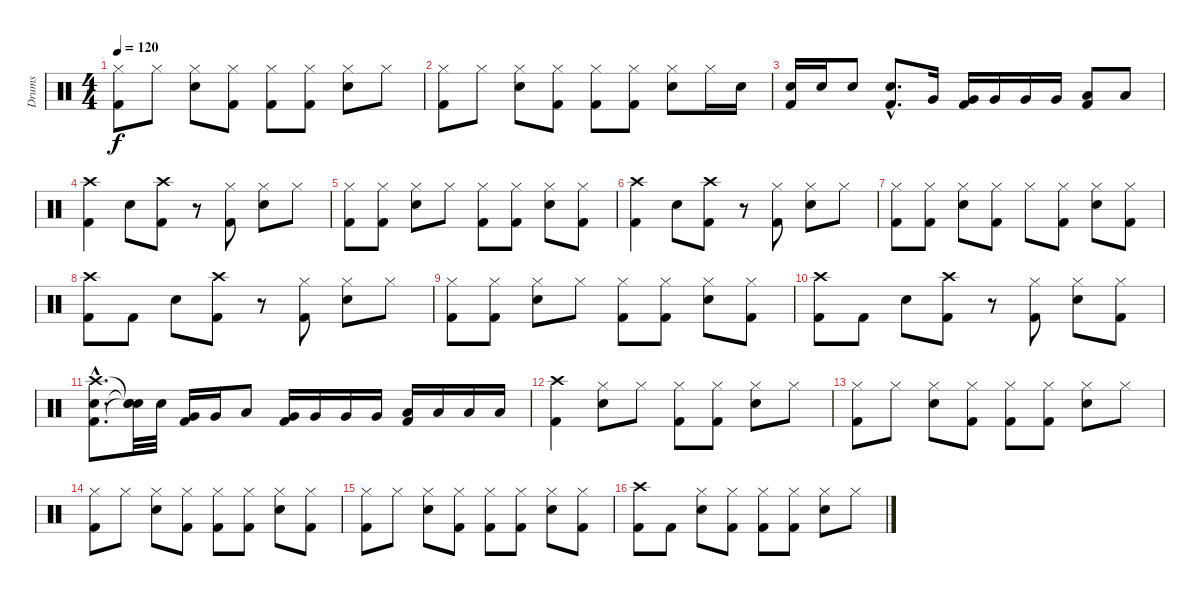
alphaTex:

\track ("Drums" "Drums") {instrument percussion}
\staff {score}
\articulation defaults
\ts (4 4)
\tempo 120
\clef neutral
\ks c
("Hi-Hat (closed)" "Kick (hit) 2").8{dy f} "Hi-Hat (closed)".8 ("Hi-Hat (closed)" "Electric Snare (hit)").8 ("Hi-Hat (closed)" "Kick (hit) 2").8 ("Hi-Hat (closed)" "Kick (hit) 2").8 ("Hi-Hat (closed)" "Kick (hit) 2").8 ("Hi-Hat (closed)" "Electric Snare (hit)").8 "Hi-Hat (closed)".8 |
("Hi-Hat (closed)" "Kick (hit) 2").8 "Hi-Hat (closed)".8 ("Hi-Hat (closed)" "Electric Snare (hit)").8 ("Hi-Hat (closed)" "Kick (hit) 2").8 ("Hi-Hat (closed)" "Kick (hit) 2").8 ("Hi-Hat (closed)" "Kick (hit) 2").8 ("Hi-Hat (closed)" "Electric Snare (hit)").8 "Hi-Hat (closed)".16 "Electric Snare (hit)".16 |
("Electric Snare (hit)" "Kick (hit) 2").16 "Electric Snare (hit)".16 "Electric Snare (hit)".8 ("Electric Snare (hit)"{hac} "Kick (hit) 2"{hac}).8{d} "Very Low Tom (hit)".16 ("Kick (hit) 2" "Very Low Tom (hit)").16 "Very Low Tom (hit)".16 "Very Low Tom (hit)".16 "Very Low Tom (hit)".16 ("Kick (hit) 2" "Low Floor Tom (hit)").8 "Low Floor Tom (hit)".8 |
("Crash high (hit)" "Kick (hit) 2").4 "Electric Snare (hit)".8 ("Crash high (hit)" "Kick (hit) 2").8 r.8 ("Hi-Hat (closed)" "Kick (hit) 2").8 ("Hi-Hat (closed)" "Electric Snare (hit)").8 "Hi-Hat (closed)".8 |
("Hi-Hat (closed)" "Kick (hit) 2").8 ("Hi-Hat (closed)" "Kick (hit) 2").8 ("Hi-Hat (closed)" "Electric Snare (hit)").8 "Hi-Hat (closed)".8 ("Hi-Hat (closed)" "Kick (hit) 2").8 ("Hi-Hat (closed)" "Kick (hit) 2").8 ("Hi-Hat (closed)" "Electric Snare (hit)").8 ("Hi-Hat (closed)" "Kick (hit) 2").8 |
("Crash high (hit)" "Kick (hit) 2").4 "Electric Snare (hit)".8 ("Crash high (hit)" "Kick (hit) 2").8 r.8 ("Hi-Hat (closed)" "Kick (hit) 2").8 ("Hi-Hat (closed)" "Electric Snare (hit)").8 "Hi-Hat (closed)".8 |
("Hi-Hat (closed)" "Kick (hit) 2").8 ("Hi-Hat (closed)" "Kick (hit) 2").8 ("Hi-Hat (closed)" "Electric Snare (hit)").8 ("Hi-Hat (closed)" "Kick (hit) 2").8 "Hi-Hat (closed)".8 ("Hi-Hat (closed)" "Kick (hit) 2").8 ("Hi-Hat (closed)" "Electric Snare (hit)").8 ("Hi-Hat (closed)" "Kick (hit) 2").8 |
("Crash high (hit)" "Kick (hit) 2").8 "Kick (hit) 2".8 "Electric Snare (hit)".8 ("Crash high (hit)" "Kick (hit) 2").8 r.8 ("Hi-Hat (closed)" "Kick (hit) 2").8 ("Hi-Hat (closed)" "Electric Snare (hit)").8 "Hi-Hat (closed)".8 |
("Hi-Hat (closed)" "Kick (hit) 2").8 ("Hi-Hat (closed)" "Kick (hit) 2").8 ("Hi-Hat (closed)" "Electric Snare (hit)").8 "Hi-Hat (closed)".8 ("Hi-Hat (closed)" "Kick (hit) 2").8 ("Hi-Hat (closed)" "Kick (hit) 2").8 ("Hi-Hat (closed)" "Electric Snare (hit)").8 ("Hi-Hat (closed)" "Kick (hit) 2").8 |
("Crash high (hit)" "Kick (hit) 2").8 "Kick (hit) 2".8 "Electric Snare (hit)".8 ("Crash high (hit)" "Kick (hit) 2").8 r.8 ("Hi-Hat (closed)" "Kick (hit) 2").8 ("Hi-Hat (closed)" "Electric Snare (hit)").8 ("Hi-Hat (closed)" "Kick (hit) 2").8 |
("Crash high (hit)"{hac} "Electric Snare (hit)"{hac} "Kick (hit) 2"{hac}).8{d} ("Snare (hit)"{t} "Snare (hit)"{t} "Snare (hit)"{t}).32 "Electric Snare (hit)".32 ("Kick (hit) 2" "Very Low Tom (hit)").16 "Very Low Tom (hit)".16 "Low Floor Tom (hit)".8 ("Kick (hit) 2" "Very Low Tom (hit)").16 "Very Low Tom (hit)".16 "Very Low Tom (hit)".16 "Very Low Tom (hit)".16 ("Kick (hit) 2" "Low Floor Tom (hit)").16 "Low Floor Tom (hit)".16 "Low Floor Tom (hit)".16 "Low Floor Tom (hit)".16 |
("Crash high (hit)" "Kick (hit) 2").4 ("Hi-Hat (closed)" "Electric Snare (hit)").8 "Hi-Hat (closed)".8 ("Hi-Hat (closed)" "Kick (hit) 2").8 ("Hi-Hat (closed)" "Kick (hit) 2").8 ("Hi-Hat (closed)" "Electric Snare (hit)").8 "Hi-Hat (closed)".8 |
("Hi-Hat (closed)" "Kick (hit) 2").8 "Hi-Hat (closed)".8 ("Hi-Hat (closed)" "Electric Snare (hit)").8 ("Hi-Hat (closed)" "Kick (hit) 2").8 ("Hi-Hat (closed)" "Kick (hit) 2").8 ("Hi-Hat (closed)" "Kick (hit) 2").8 ("Hi-Hat (closed)" "Electric Snare (hit)").8 "Hi-Hat (closed)".8 |
("Hi-Hat (closed)" "Kick (hit) 2").8 "Hi-Hat (closed)".8 ("Hi-Hat (closed)" "Electric Snare (hit)").8 ("Hi-Hat (closed)" "Kick (hit) 2").8 ("Hi-Hat (closed)" "Kick (hit) 2").8 ("Hi-Hat (closed)" "Kick (hit) 2").8 ("Hi-Hat (closed)" "Electric Snare (hit)").8 ("Hi-Hat (closed)" "Kick (hit) 2").8 |
("Hi-Hat (closed)" "Kick (hit) 2").8 "Hi-Hat (closed)".8 ("Hi-Hat (closed)" "Electric Snare (hit)").8 ("Hi-Hat (closed)" "Kick (hit) 2").8 ("Hi-Hat (closed)" "Kick (hit) 2").8 ("Hi-Hat (closed)" "Kick (hit) 2").8 ("Hi-Hat (closed)" "Electric Snare (hit)").8 ("Hi-Hat (closed)" "Kick (hit) 2").8 |
("Crash high (hit)" "Kick (hit) 2").8 "Kick (hit) 2".8 ("Hi-Hat (closed)" "Electric Snare (hit)").8 ("Hi-Hat (closed)" "Kick (hit) 2").8 ("Hi-Hat (closed)" "Kick (hit) 2").8 ("Hi-Hat (closed)" "Kick (hit) 2").8 ("Hi-Hat (closed)" "Electric Snare (hit)").8 "Hi-Hat (closed)".8
